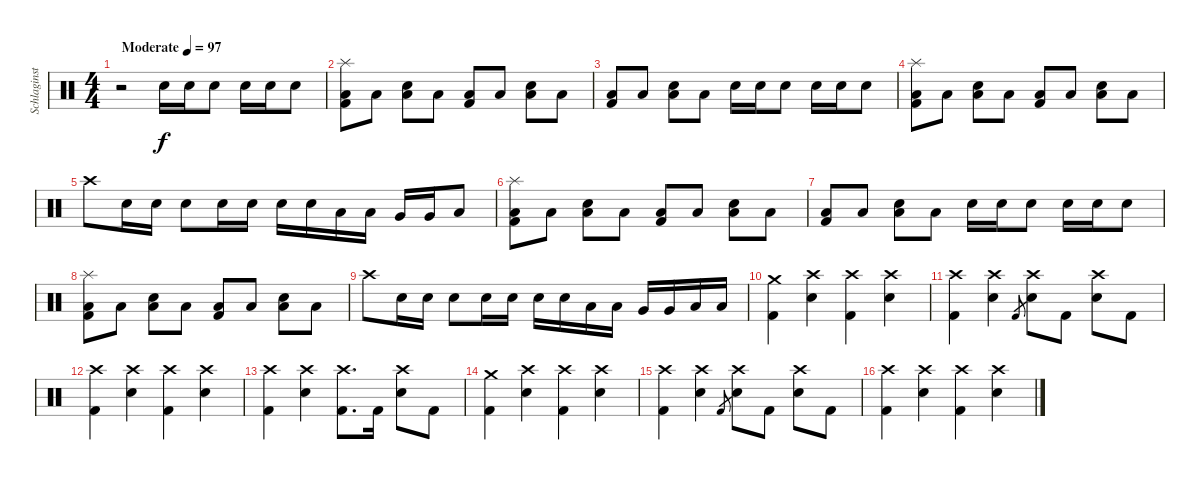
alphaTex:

\track ("Schlaginstrumente - Auswahl" "Schlaginst") {instrument percussion}
\staff {score}
\articulation defaults
\ts (4 4)
\tempo (97 "Moderate")
\clef neutral
\ks c
r.2{dy f} "Electric Snare (hit)".16 "Electric Snare (hit)".16 "Electric Snare (hit)".8 "Electric Snare (hit)".16 "Electric Snare (hit)".16 "Electric Snare (hit)".8 |
("Splash (hit)" "Low Floor Tom (hit)" "Kick (hit) 2").8 "Low Floor Tom (hit)".8 ("Low Floor Tom (hit)" "Electric Snare (hit)").8 "Low Floor Tom (hit)".8 ("Low Floor Tom (hit)" "Kick (hit) 2").8 "Low Floor Tom (hit)".8 ("Low Floor Tom (hit)" "Electric Snare (hit)").8 "Low Floor Tom (hit)".8 |
("Low Floor Tom (hit)" "Kick (hit) 2").8 "Low Floor Tom (hit)".8 ("Low Floor Tom (hit)" "Electric Snare (hit)").8 "Low Floor Tom (hit)".8 "Electric Snare (hit)".16 "Electric Snare (hit)".16 "Electric Snare (hit)".8 "Electric Snare (hit)".16 "Electric Snare (hit)".16 "Electric Snare (hit)".8 |
("Splash (hit)" "Low Floor Tom (hit)" "Kick (hit) 2").8 "Low Floor Tom (hit)".8 ("Low Floor Tom (hit)" "Electric Snare (hit)").8 "Low Floor Tom (hit)".8 ("Low Floor Tom (hit)" "Kick (hit) 2").8 "Low Floor Tom (hit)".8 ("Low Floor Tom (hit)" "Electric Snare (hit)").8 "Low Floor Tom (hit)".8 |
"Crash high (hit)".8 "Electric Snare (hit)".16 "Electric Snare (hit)".16 "Electric Snare (hit)".8 "Electric Snare (hit)".16 "Electric Snare (hit)".16 "Electric Snare (hit)".16 "Electric Snare (hit)".16 "Low Tom (hit)".16 "Low Tom (hit)".16 "Very Low Tom (hit)".16 "Very Low Tom (hit)".16 "Low Floor Tom (hit)".8 |
("Splash (hit)" "Low Floor Tom (hit)" "Kick (hit) 2").8 "Low Floor Tom (hit)".8 ("Low Floor Tom (hit)" "Electric Snare (hit)").8 "Low Floor Tom (hit)".8 ("Low Floor Tom (hit)" "Kick (hit) 2").8 "Low Floor Tom (hit)".8 ("Low Floor Tom (hit)" "Electric Snare (hit)").8 "Low Floor Tom (hit)".8 |
("Low Floor Tom (hit)" "Kick (hit) 2").8 "Low Floor Tom (hit)".8 ("Low Floor Tom (hit)" "Electric Snare (hit)").8 "Low Floor Tom (hit)".8 "Electric Snare (hit)".16 "Electric Snare (hit)".16 "Electric Snare (hit)".8 "Electric Snare (hit)".16 "Electric Snare (hit)".16 "Electric Snare (hit)".8 |
("Splash (hit)" "Low Floor Tom (hit)" "Kick (hit) 2").8 "Low Floor Tom (hit)".8 ("Low Floor Tom (hit)" "Electric Snare (hit)").8 "Low Floor Tom (hit)".8 ("Low Floor Tom (hit)" "Kick (hit) 2").8 "Low Floor Tom (hit)".8 ("Low Floor Tom (hit)" "Electric Snare (hit)").8 "Low Floor Tom (hit)".8 |
"Crash high (hit)".8 "Electric Snare (hit)".16 "Electric Snare (hit)".16 "Electric Snare (hit)".8 "Electric Snare (hit)".16 "Electric Snare (hit)".16 "Electric Snare (hit)".16 "Electric Snare (hit)".16 "Low Tom (hit)".16 "Low Tom (hit)".16 "Very Low Tom (hit)".16 "Very Low Tom (hit)".16 "Low Floor Tom (hit)".16 "Low Floor Tom (hit)".16 |
("Crash medium (hit)" "Kick (hit) 2").4 ("Crash high (hit)" "Electric Snare (hit)").4 ("Crash high (hit)" "Kick (hit) 2").4 ("Crash high (hit)" "Electric Snare (hit)").4 |
("Crash high (hit)" "Kick (hit) 2").4 ("Crash high (hit)" "Electric Snare (hit)").4 "Kick (hit) 2".8{gr} ("Crash high (hit)" "Electric Snare (hit)").8 "Kick (hit) 2".8 ("Crash high (hit)" "Electric Snare (hit)").8 "Kick (hit) 2".8 |
("Crash high (hit)" "Kick (hit) 2").4 ("Crash high (hit)" "Electric Snare (hit)").4 ("Crash high (hit)" "Kick (hit) 2").4 ("Crash high (hit)" "Electric Snare (hit)").4 |
("Crash high (hit)" "Kick (hit) 2").4 ("Crash high (hit)" "Electric Snare (hit)").4 ("Crash high (hit)" "Kick (hit) 2").8{d} "Kick (hit) 2".16 ("Crash high (hit)" "Electric Snare (hit)").8 "Kick (hit) 2".8 |
("Crash medium (hit)" "Kick (hit) 2").4 ("Crash high (hit)" "Electric Snare (hit)").4 ("Crash high (hit)" "Kick (hit) 2").4 ("Crash high (hit)" "Electric Snare (hit)").4 |
("Crash high (hit)" "Kick (hit) 2").4 ("Crash high (hit)" "Electric Snare (hit)").4 "Kick (hit) 2".8{gr} ("Crash high (hit)" "Electric Snare (hit)").8 "Kick (hit) 2".8 ("Crash high (hit)" "Electric Snare (hit)").8 "Kick (hit) 2".8 |
("Crash high (hit)" "Kick (hit) 2").4 ("Crash high (hit)" "Electric Snare (hit)").4 ("Crash high (hit)" "Kick (hit) 2").4 ("Crash high (hit)" "Electric Snare (hit)").4
